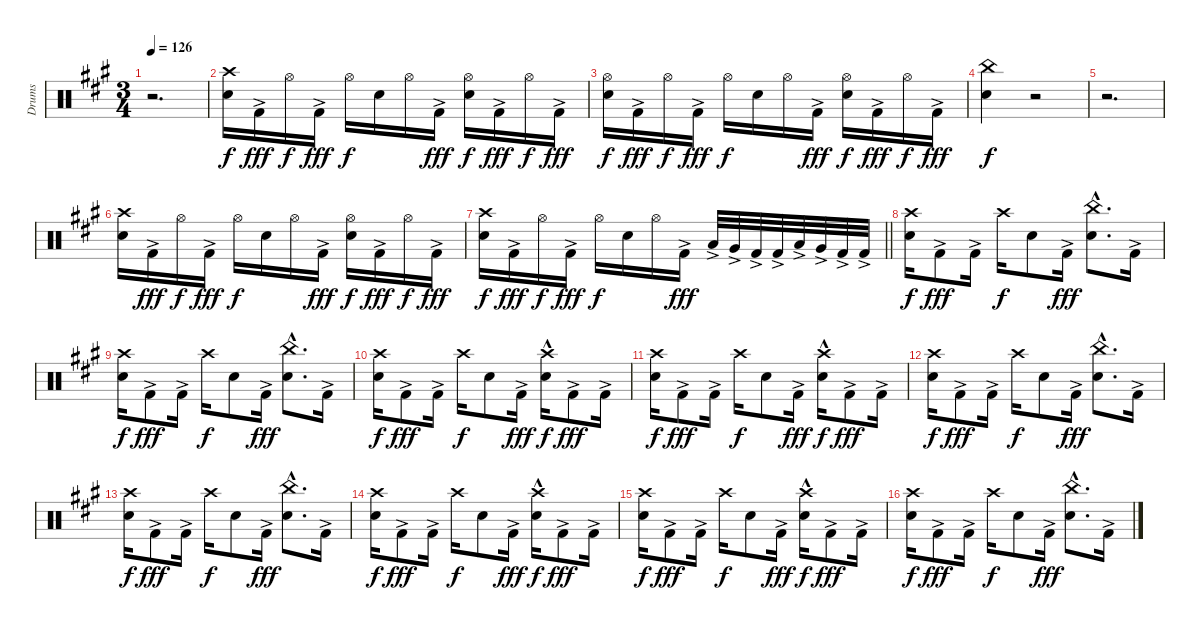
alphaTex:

\track ("Drums" "Drums") {instrument percussion}
\staff {score}
\articulation defaults
\ts (3 4)
\tempo 126
\clef neutral
\ks f#minor
r.2{d dy fff} |
("Crash high (hit)" "Snare (hit) 2").16{dy f} "Kick (hit) 2"{ac}.16{dy fff} "Hi-Hat (open)".16{dy f} "Kick (hit) 2"{ac}.16{dy fff} "Hi-Hat (open)".16{dy f} "Snare (hit) 2".16 "Hi-Hat (open)".16 "Kick (hit) 2"{ac}.16{dy fff} ("Hi-Hat (open)" "Snare (hit) 2").16{dy f} "Kick (hit) 2"{ac}.16{dy fff} "Hi-Hat (open)".16{dy f} "Kick (hit) 2"{ac}.16{dy fff} |
("Hi-Hat (open)" "Snare (hit) 2").16{dy f} "Kick (hit) 2"{ac}.16{dy fff} "Hi-Hat (open)".16{dy f} "Kick (hit) 2"{ac}.16{dy fff} "Hi-Hat (open)".16{dy f} "Snare (hit) 2".16 "Hi-Hat (open)".16 "Kick (hit) 2"{ac}.16{dy fff} ("Hi-Hat (open)" "Snare (hit) 2").16{dy f} "Kick (hit) 2"{ac}.16{dy fff} "Hi-Hat (open)".16{dy f} "Kick (hit) 2"{ac}.16{dy fff} |
("China (hit)" "Snare (hit) 2").4{dy f} r.2 |
r.2{d} |
("Crash high (hit)" "Snare (hit) 2").16 "Kick (hit) 2"{ac}.16{dy fff} "Hi-Hat (open)".16{dy f} "Kick (hit) 2"{ac}.16{dy fff} "Hi-Hat (open)".16{dy f} "Snare (hit) 2".16 "Hi-Hat (open)".16 "Kick (hit) 2"{ac}.16{dy fff} ("Hi-Hat (open)" "Snare (hit) 2").16{dy f} "Kick (hit) 2"{ac}.16{dy fff} "Hi-Hat (open)".16{dy f} "Kick (hit) 2"{ac}.16{dy fff} |
\barLineRight lightlight
("Crash high (hit)" "Snare (hit) 2").16{dy f} "Kick (hit) 2"{ac}.16{dy fff} "Hi-Hat (open)".16{dy f} "Kick (hit) 2"{ac}.16{dy fff} "Hi-Hat (open)".16{dy f} "Snare (hit) 2".16 "Hi-Hat (open)".16 "Kick (hit) 2"{ac}.16{dy fff} "Low Tom (hit)"{ac}.32 "Very Low Tom (hit)"{ac}.32 "Kick (hit) 2"{ac}.32 "Kick (hit) 2"{ac}.32 "Low Tom (hit)"{ac}.32 "Very Low Tom (hit)"{ac}.32 "Kick (hit) 2"{ac}.32 "Kick (hit) 2"{ac}.32 |
("Crash high (hit)" "Snare (hit) 2").16{dy f} "Kick (hit) 2"{ac}.8{dy fff} "Kick (hit) 2"{ac}.16 "Crash high (hit)".16{dy f} "Snare (hit) 2".8 "Kick (hit) 2"{ac}.16{dy fff} ("China (hit)"{hac} "Snare (hit) 2"{hac}).8{d} "Kick (hit) 2"{ac}.16 |
("Crash high (hit)" "Snare (hit) 2").16{dy f} "Kick (hit) 2"{ac}.8{dy fff} "Kick (hit) 2"{ac}.16 "Crash high (hit)".16{dy f} "Snare (hit) 2".8 "Kick (hit) 2"{ac}.16{dy fff} ("China (hit)"{hac} "Snare (hit) 2"{hac}).8{d} "Kick (hit) 2"{ac}.16 |
("Crash high (hit)" "Snare (hit) 2").16{dy f} "Kick (hit) 2"{ac}.8{dy fff} "Kick (hit) 2"{ac}.16 "Crash high (hit)".16{dy f} "Snare (hit) 2".8 "Kick (hit) 2"{ac}.16{dy fff} ("Crash high (hit)"{hac} "Snare (hit) 2").16{dy f} "Kick (hit) 2"{ac}.8{dy fff} "Kick (hit) 2"{ac}.16 |
("Crash high (hit)" "Snare (hit) 2").16{dy f} "Kick (hit) 2"{ac}.8{dy fff} "Kick (hit) 2"{ac}.16 "Crash high (hit)".16{dy f} "Snare (hit) 2".8 "Kick (hit) 2"{ac}.16{dy fff} ("Crash high (hit)"{hac} "Snare (hit) 2").16{dy f} "Kick (hit) 2"{ac}.8{dy fff} "Kick (hit) 2"{ac}.16 |
("Crash high (hit)" "Snare (hit) 2").16{dy f} "Kick (hit) 2"{ac}.8{dy fff} "Kick (hit) 2"{ac}.16 "Crash high (hit)".16{dy f} "Snare (hit) 2".8 "Kick (hit) 2"{ac}.16{dy fff} ("China (hit)"{hac} "Snare (hit) 2"{hac}).8{d} "Kick (hit) 2"{ac}.16 |
("Crash high (hit)" "Snare (hit) 2").16{dy f} "Kick (hit) 2"{ac}.8{dy fff} "Kick (hit) 2"{ac}.16 "Crash high (hit)".16{dy f} "Snare (hit) 2".8 "Kick (hit) 2"{ac}.16{dy fff} ("China (hit)"{hac} "Snare (hit) 2"{hac}).8{d} "Kick (hit) 2"{ac}.16 |
("Crash high (hit)" "Snare (hit) 2").16{dy f} "Kick (hit) 2"{ac}.8{dy fff} "Kick (hit) 2"{ac}.16 "Crash high (hit)".16{dy f} "Snare (hit) 2".8 "Kick (hit) 2"{ac}.16{dy fff} ("Crash high (hit)"{hac} "Snare (hit) 2").16{dy f} "Kick (hit) 2"{ac}.8{dy fff} "Kick (hit) 2"{ac}.16 |
("Crash high (hit)" "Snare (hit) 2").16{dy f} "Kick (hit) 2"{ac}.8{dy fff} "Kick (hit) 2"{ac}.16 "Crash high (hit)".16{dy f} "Snare (hit) 2".8 "Kick (hit) 2"{ac}.16{dy fff} ("Crash high (hit)"{hac} "Snare (hit) 2").16{dy f} "Kick (hit) 2"{ac}.8{dy fff} "Kick (hit) 2"{ac}.16 |
("Crash high (hit)" "Snare (hit) 2").16{dy f} "Kick (hit) 2"{ac}.8{dy fff} "Kick (hit) 2"{ac}.16 "Crash high (hit)".16{dy f} "Snare (hit) 2".8 "Kick (hit) 2"{ac}.16{dy fff} ("China (hit)"{hac} "Snare (hit) 2"{hac}).8{d} "Kick (hit) 2"{ac}.16
